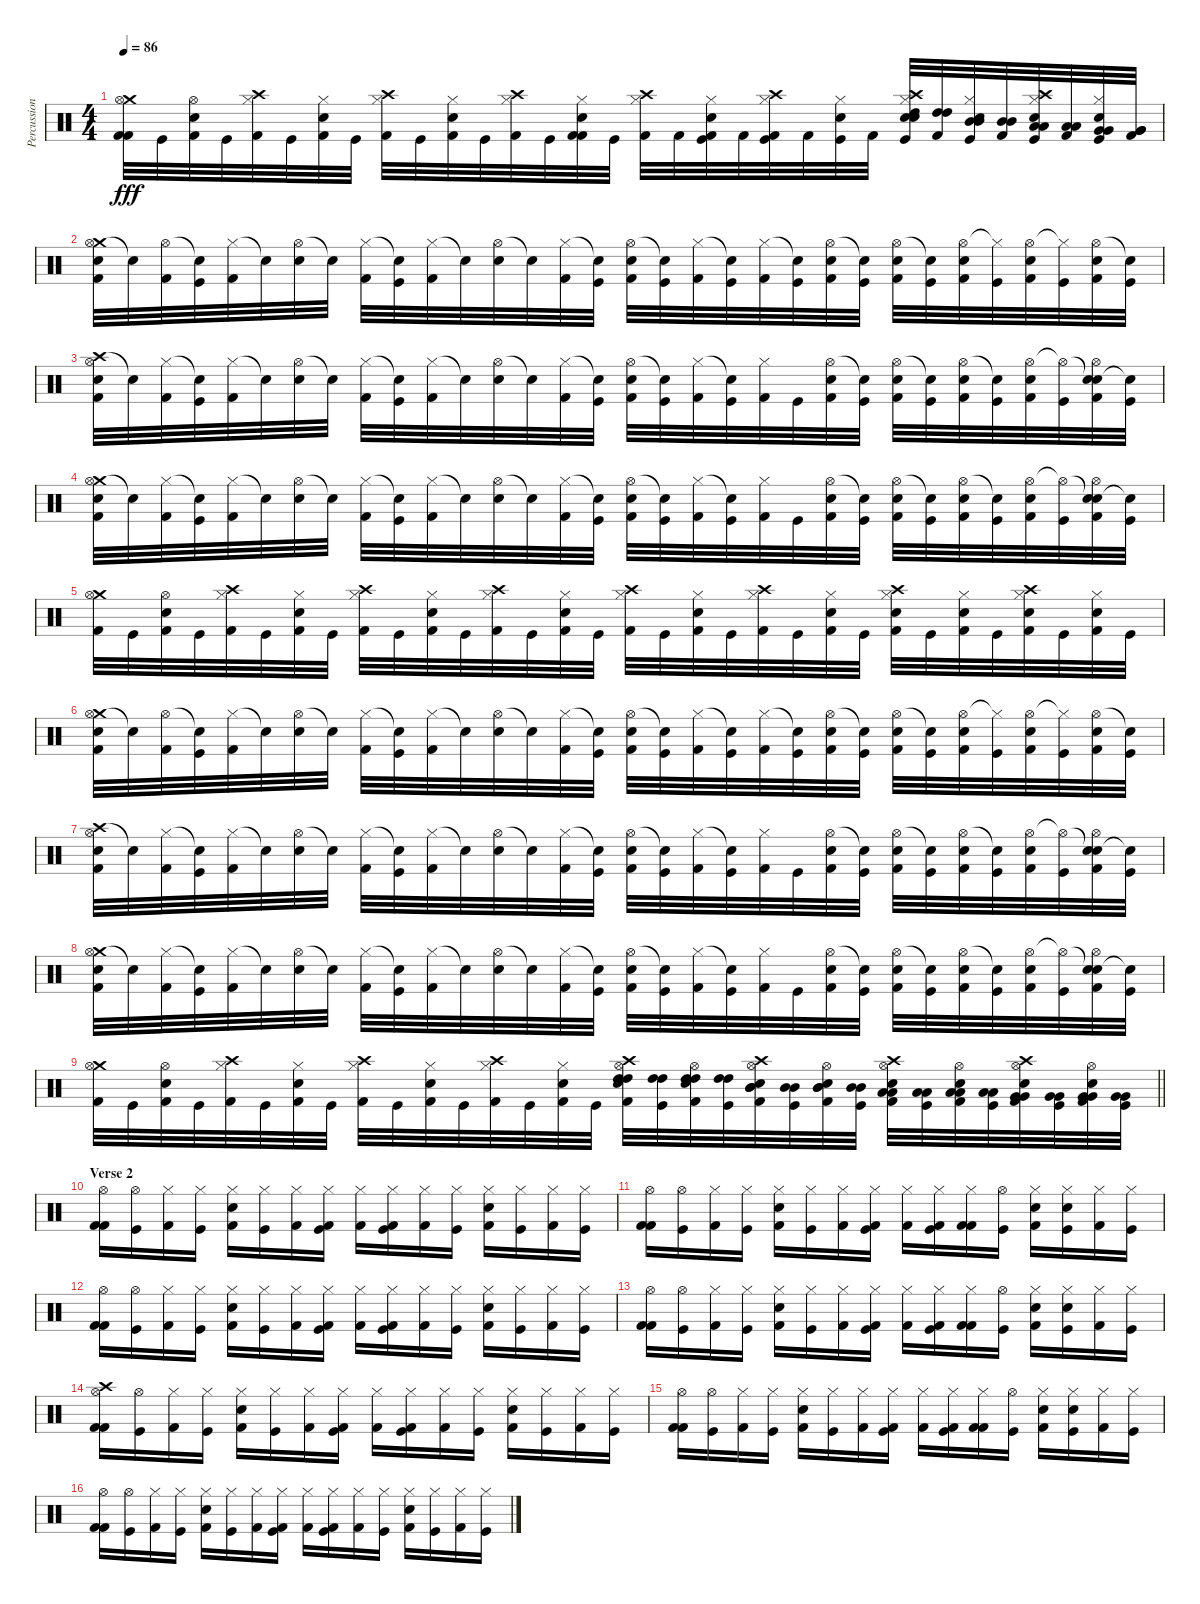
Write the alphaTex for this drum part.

\track ("Percussion" "Percussion") {instrument percussion}
\staff {score}
\articulation defaults
\ts (4 4)
\tempo 86
\clef neutral
\ks c
("Crash medium (hit)" "Hi-Hat (open)" "Kick (hit) 2" "Kick (hit) 2").32{dy fff} "Kick (hit)".32 ("Hi-Hat (open)" "Electric Snare (hit)" "Kick (hit) 2").32 "Kick (hit)".32 ("Crash high (hit)" "Hi-Hat (closed)" "Kick (hit) 2").32 "Kick (hit)".32 ("Hi-Hat (closed)" "Electric Snare (hit)" "Kick (hit) 2").32 "Kick (hit)".32 ("Crash high (hit)" "Hi-Hat (closed)" "Kick (hit) 2").32 "Kick (hit)".32 ("Hi-Hat (closed)" "Electric Snare (hit)" "Kick (hit) 2").32 "Kick (hit)".32 ("Crash high (hit)" "Hi-Hat (closed)" "Kick (hit) 2").32 "Kick (hit)".32 ("Hi-Hat (closed)" "Electric Snare (hit)" "Kick (hit) 2" "Kick (hit) 2").32 "Kick (hit)".32 ("Crash high (hit)" "Hi-Hat (closed)" "Kick (hit) 2").32 "Kick (hit) 2".32 ("Hi-Hat (closed)" "Electric Snare (hit)" "Kick (hit) 2" "Kick (hit)").32 "Kick (hit) 2".32 ("Crash high (hit)" "Hi-Hat (closed)" "Kick (hit) 2" "Kick (hit)").32 "Kick (hit) 2".32 ("Hi-Hat (closed)" "Electric Snare (hit)" "Kick (hit)").32 "Kick (hit) 2".32 ("Crash high (hit)" "Hi-Hat (closed)" "Snare (hit)" "High Tom (hit)" "Electric Snare (hit)" "Kick (hit)").32 ("High Tom (hit)" "High Tom (hit)" "Kick (hit) 2").32 ("Hi-Hat (closed)" "Mid Tom (hit)" "Mid Tom (hit)" "Electric Snare (hit)" "Kick (hit)").32 ("Mid Tom (hit)" "Mid Tom (hit)" "Kick (hit) 2").32 ("Crash high (hit)" "Hi-Hat (closed)" "Low Tom (hit)" "Low Tom (hit)" "Electric Snare (hit)" "Kick (hit)").32 ("Low Tom (hit)" "Low Tom (hit)" "Kick (hit) 2").32 ("Hi-Hat (closed)" "Very Low Tom (hit)" "Very Low Tom (hit)" "Electric Snare (hit)" "Kick (hit)").32 ("Very Low Tom (hit)" "Very Low Tom (hit)" "Kick (hit) 2").32 |
("Crash medium (hit)" "Hi-Hat (open)" "Electric Snare (hit)" "Kick (hit) 2").32 "Snare (hit)"{t}.32 ("Hi-Hat (open)" "Kick (hit) 2").32 ("Snare (hit)"{t} "Kick (hit)").32 ("Hi-Hat (closed)" "Kick (hit) 2").32 "Snare (hit)"{t}.32 ("Hi-Hat (open)" "Electric Snare (hit)").32 "Snare (hit)"{t}.32 ("Hi-Hat (closed)" "Kick (hit) 2").32 ("Snare (hit)"{t} "Kick (hit)").32 ("Hi-Hat (closed)" "Kick (hit) 2").32 "Snare (hit)"{t}.32 ("Hi-Hat (open)" "Electric Snare (hit)").32 "Snare (hit)"{t}.32 ("Hi-Hat (closed)" "Kick (hit) 2").32 ("Snare (hit)"{t} "Kick (hit)").32 ("Hi-Hat (open)" "Electric Snare (hit)" "Kick (hit) 2").32 ("Snare (hit)"{t} "Kick (hit)").32 ("Hi-Hat (closed)" "Kick (hit) 2").32 ("Snare (hit)"{t} "Kick (hit)").32 ("Hi-Hat (closed)" "Kick (hit) 2").32 ("Snare (hit)"{t} "Kick (hit)").32 ("Hi-Hat (open)" "Electric Snare (hit)" "Kick (hit) 2").32 ("Snare (hit)"{t} "Kick (hit)").32 ("Hi-Hat (open)" "Electric Snare (hit)" "Kick (hit) 2").32 ("Snare (hit)"{t} "Kick (hit)").32 ("Hi-Hat (open)" "Electric Snare (hit)" "Kick (hit) 2").32 ("Hi-Hat (closed)"{t} "Kick (hit)").32 ("Hi-Hat (open)" "Electric Snare (hit)" "Kick (hit) 2").32 ("Hi-Hat (closed)"{t} "Kick (hit)").32 ("Hi-Hat (open)" "Electric Snare (hit)" "Kick (hit) 2").32 ("Snare (hit)"{t} "Kick (hit)").32 |
("Crash high (hit)" "Hi-Hat (open)" "Electric Snare (hit)" "Kick (hit) 2").32 "Snare (hit)"{t}.32 ("Hi-Hat (closed)" "Kick (hit) 2").32 ("Snare (hit)"{t} "Kick (hit)").32 ("Hi-Hat (closed)" "Kick (hit) 2").32 "Snare (hit)"{t}.32 ("Hi-Hat (open)" "Electric Snare (hit)").32 "Snare (hit)"{t}.32 ("Hi-Hat (closed)" "Kick (hit) 2").32 ("Snare (hit)"{t} "Kick (hit)").32 ("Hi-Hat (closed)" "Kick (hit) 2").32 "Snare (hit)"{t}.32 ("Hi-Hat (open)" "Electric Snare (hit)").32 "Snare (hit)"{t}.32 ("Hi-Hat (closed)" "Kick (hit) 2").32 ("Snare (hit)"{t} "Kick (hit)").32 ("Hi-Hat (open)" "Electric Snare (hit)" "Kick (hit) 2").32 ("Snare (hit)"{t} "Kick (hit)").32 ("Hi-Hat (closed)" "Kick (hit) 2").32 ("Snare (hit)"{t} "Kick (hit)").32 ("Hi-Hat (closed)" "Kick (hit) 2").32 "Kick (hit)".32 ("Hi-Hat (open)" "Electric Snare (hit)" "Kick (hit) 2").32 ("Snare (hit)"{t} "Kick (hit)").32 ("Hi-Hat (open)" "Electric Snare (hit)" "Kick (hit) 2").32 ("Snare (hit)"{t} "Kick (hit)").32 ("Hi-Hat (open)" "Electric Snare (hit)" "Kick (hit) 2").32 ("Snare (hit)"{t} "Kick (hit)").32 ("Hi-Hat (open)" "Electric Snare (hit)" "Kick (hit) 2").32 ("Hi-Hat (open)"{t} "Kick (hit)").32 ("Snare (hit)"{t} "Hi-Hat (open)" "Electric Snare (hit)" "Kick (hit) 2").32 ("Snare (hit)"{t} "Kick (hit)").32 |
("Crash medium (hit)" "Hi-Hat (open)" "Electric Snare (hit)" "Kick (hit) 2").32 "Snare (hit)"{t}.32 ("Hi-Hat (closed)" "Kick (hit) 2").32 ("Snare (hit)"{t} "Kick (hit)").32 ("Hi-Hat (closed)" "Kick (hit) 2").32 "Snare (hit)"{t}.32 ("Hi-Hat (open)" "Electric Snare (hit)").32 "Snare (hit)"{t}.32 ("Hi-Hat (closed)" "Kick (hit) 2").32 ("Snare (hit)"{t} "Kick (hit)").32 ("Hi-Hat (closed)" "Kick (hit) 2").32 "Snare (hit)"{t}.32 ("Hi-Hat (open)" "Electric Snare (hit)").32 "Snare (hit)"{t}.32 ("Hi-Hat (closed)" "Kick (hit) 2").32 ("Snare (hit)"{t} "Kick (hit)").32 ("Hi-Hat (open)" "Electric Snare (hit)" "Kick (hit) 2").32 ("Snare (hit)"{t} "Kick (hit)").32 ("Hi-Hat (closed)" "Kick (hit) 2").32 ("Snare (hit)"{t} "Kick (hit)").32 ("Hi-Hat (closed)" "Kick (hit) 2").32 "Kick (hit)".32 ("Hi-Hat (open)" "Electric Snare (hit)" "Kick (hit) 2").32 ("Snare (hit)"{t} "Kick (hit)").32 ("Hi-Hat (open)" "Electric Snare (hit)" "Kick (hit) 2").32 ("Snare (hit)"{t} "Kick (hit)").32 ("Hi-Hat (open)" "Electric Snare (hit)" "Kick (hit) 2").32 ("Snare (hit)"{t} "Kick (hit)").32 ("Hi-Hat (open)" "Electric Snare (hit)" "Kick (hit) 2").32 ("Hi-Hat (open)"{t} "Kick (hit)").32 ("Snare (hit)"{t} "Hi-Hat (open)" "Electric Snare (hit)" "Kick (hit) 2").32 ("Snare (hit)"{t} "Kick (hit)").32 |
("Crash medium (hit)" "Hi-Hat (open)" "Kick (hit) 2").32 "Kick (hit)".32 ("Hi-Hat (open)" "Electric Snare (hit)" "Kick (hit) 2").32 "Kick (hit)".32 ("Crash high (hit)" "Hi-Hat (closed)" "Kick (hit) 2").32 "Kick (hit)".32 ("Hi-Hat (closed)" "Electric Snare (hit)" "Kick (hit) 2").32 "Kick (hit)".32 ("Crash high (hit)" "Hi-Hat (closed)" "Kick (hit) 2").32 "Kick (hit)".32 ("Hi-Hat (closed)" "Electric Snare (hit)" "Kick (hit) 2").32 "Kick (hit)".32 ("Crash high (hit)" "Hi-Hat (closed)" "Kick (hit) 2").32 "Kick (hit)".32 ("Hi-Hat (closed)" "Electric Snare (hit)" "Kick (hit) 2").32 "Kick (hit)".32 ("Crash high (hit)" "Hi-Hat (closed)" "Kick (hit) 2").32 "Kick (hit)".32 ("Hi-Hat (closed)" "Electric Snare (hit)" "Kick (hit) 2").32 "Kick (hit)".32 ("Crash high (hit)" "Hi-Hat (closed)" "Kick (hit) 2").32 "Kick (hit)".32 ("Hi-Hat (closed)" "Electric Snare (hit)" "Kick (hit) 2").32 "Kick (hit)".32 ("Crash high (hit)" "Hi-Hat (closed)" "Electric Snare (hit)" "Kick (hit) 2").32 "Kick (hit)".32 ("Hi-Hat (closed)" "Electric Snare (hit)" "Kick (hit) 2").32 "Kick (hit)".32 ("Crash high (hit)" "Hi-Hat (closed)" "Electric Snare (hit)" "Kick (hit) 2").32 "Kick (hit)".32 ("Hi-Hat (closed)" "Electric Snare (hit)" "Kick (hit) 2").32 "Kick (hit)".32 |
("Crash medium (hit)" "Hi-Hat (open)" "Electric Snare (hit)" "Kick (hit) 2").32 "Snare (hit)"{t}.32 ("Hi-Hat (open)" "Kick (hit) 2").32 ("Snare (hit)"{t} "Kick (hit)").32 ("Hi-Hat (closed)" "Kick (hit) 2").32 "Snare (hit)"{t}.32 ("Hi-Hat (open)" "Electric Snare (hit)").32 "Snare (hit)"{t}.32 ("Hi-Hat (closed)" "Kick (hit) 2").32 ("Snare (hit)"{t} "Kick (hit)").32 ("Hi-Hat (closed)" "Kick (hit) 2").32 "Snare (hit)"{t}.32 ("Hi-Hat (open)" "Electric Snare (hit)").32 "Snare (hit)"{t}.32 ("Hi-Hat (closed)" "Kick (hit) 2").32 ("Snare (hit)"{t} "Kick (hit)").32 ("Hi-Hat (open)" "Electric Snare (hit)" "Kick (hit) 2").32 ("Snare (hit)"{t} "Kick (hit)").32 ("Hi-Hat (closed)" "Kick (hit) 2").32 ("Snare (hit)"{t} "Kick (hit)").32 ("Hi-Hat (closed)" "Kick (hit) 2").32 ("Snare (hit)"{t} "Kick (hit)").32 ("Hi-Hat (open)" "Electric Snare (hit)" "Kick (hit) 2").32 ("Snare (hit)"{t} "Kick (hit)").32 ("Hi-Hat (open)" "Electric Snare (hit)" "Kick (hit) 2").32 ("Snare (hit)"{t} "Kick (hit)").32 ("Hi-Hat (open)" "Electric Snare (hit)" "Kick (hit) 2").32 ("Hi-Hat (closed)"{t} "Kick (hit)").32 ("Hi-Hat (open)" "Electric Snare (hit)" "Kick (hit) 2").32 ("Hi-Hat (closed)"{t} "Kick (hit)").32 ("Hi-Hat (open)" "Electric Snare (hit)" "Kick (hit) 2").32 ("Snare (hit)"{t} "Kick (hit)").32 |
("Crash high (hit)" "Hi-Hat (open)" "Electric Snare (hit)" "Kick (hit) 2").32 "Snare (hit)"{t}.32 ("Hi-Hat (closed)" "Kick (hit) 2").32 ("Snare (hit)"{t} "Kick (hit)").32 ("Hi-Hat (closed)" "Kick (hit) 2").32 "Snare (hit)"{t}.32 ("Hi-Hat (open)" "Electric Snare (hit)").32 "Snare (hit)"{t}.32 ("Hi-Hat (closed)" "Kick (hit) 2").32 ("Snare (hit)"{t} "Kick (hit)").32 ("Hi-Hat (closed)" "Kick (hit) 2").32 "Snare (hit)"{t}.32 ("Hi-Hat (open)" "Electric Snare (hit)").32 "Snare (hit)"{t}.32 ("Hi-Hat (closed)" "Kick (hit) 2").32 ("Snare (hit)"{t} "Kick (hit)").32 ("Hi-Hat (open)" "Electric Snare (hit)" "Kick (hit) 2").32 ("Snare (hit)"{t} "Kick (hit)").32 ("Hi-Hat (closed)" "Kick (hit) 2").32 ("Snare (hit)"{t} "Kick (hit)").32 ("Hi-Hat (closed)" "Kick (hit) 2").32 "Kick (hit)".32 ("Hi-Hat (open)" "Electric Snare (hit)" "Kick (hit) 2").32 ("Snare (hit)"{t} "Kick (hit)").32 ("Hi-Hat (open)" "Electric Snare (hit)" "Kick (hit) 2").32 ("Snare (hit)"{t} "Kick (hit)").32 ("Hi-Hat (open)" "Electric Snare (hit)" "Kick (hit) 2").32 ("Snare (hit)"{t} "Kick (hit)").32 ("Hi-Hat (open)" "Electric Snare (hit)" "Kick (hit) 2").32 ("Hi-Hat (open)"{t} "Kick (hit)").32 ("Snare (hit)"{t} "Hi-Hat (open)" "Electric Snare (hit)" "Kick (hit) 2").32 ("Snare (hit)"{t} "Kick (hit)").32 |
("Crash medium (hit)" "Hi-Hat (open)" "Electric Snare (hit)" "Kick (hit) 2").32 "Snare (hit)"{t}.32 ("Hi-Hat (closed)" "Kick (hit) 2").32 ("Snare (hit)"{t} "Kick (hit)").32 ("Hi-Hat (closed)" "Kick (hit) 2").32 "Snare (hit)"{t}.32 ("Hi-Hat (open)" "Electric Snare (hit)").32 "Snare (hit)"{t}.32 ("Hi-Hat (closed)" "Kick (hit) 2").32 ("Snare (hit)"{t} "Kick (hit)").32 ("Hi-Hat (closed)" "Kick (hit) 2").32 "Snare (hit)"{t}.32 ("Hi-Hat (open)" "Electric Snare (hit)").32 "Snare (hit)"{t}.32 ("Hi-Hat (closed)" "Kick (hit) 2").32 ("Snare (hit)"{t} "Kick (hit)").32 ("Hi-Hat (open)" "Electric Snare (hit)" "Kick (hit) 2").32 ("Snare (hit)"{t} "Kick (hit)").32 ("Hi-Hat (closed)" "Kick (hit) 2").32 ("Snare (hit)"{t} "Kick (hit)").32 ("Hi-Hat (closed)" "Kick (hit) 2").32 "Kick (hit)".32 ("Hi-Hat (open)" "Electric Snare (hit)" "Kick (hit) 2").32 ("Snare (hit)"{t} "Kick (hit)").32 ("Hi-Hat (open)" "Electric Snare (hit)" "Kick (hit) 2").32 ("Snare (hit)"{t} "Kick (hit)").32 ("Hi-Hat (open)" "Electric Snare (hit)" "Kick (hit) 2").32 ("Snare (hit)"{t} "Kick (hit)").32 ("Hi-Hat (open)" "Electric Snare (hit)" "Kick (hit) 2").32 ("Hi-Hat (open)"{t} "Kick (hit)").32 ("Snare (hit)"{t} "Hi-Hat (open)" "Electric Snare (hit)" "Kick (hit) 2").32 ("Snare (hit)"{t} "Kick (hit)").32 |
\barLineRight lightlight
("Crash medium (hit)" "Hi-Hat (open)" "Kick (hit) 2").32 "Kick (hit)".32 ("Hi-Hat (open)" "Electric Snare (hit)" "Kick (hit) 2").32 "Kick (hit)".32 ("Crash high (hit)" "Hi-Hat (closed)" "Kick (hit) 2").32 "Kick (hit)".32 ("Hi-Hat (closed)" "Electric Snare (hit)" "Kick (hit) 2").32 "Kick (hit)".32 ("Crash high (hit)" "Hi-Hat (closed)" "Kick (hit) 2").32 "Kick (hit)".32 ("Hi-Hat (closed)" "Electric Snare (hit)" "Kick (hit) 2").32 "Kick (hit)".32 ("Crash high (hit)" "Hi-Hat (closed)" "Kick (hit) 2").32 "Kick (hit)".32 ("Hi-Hat (closed)" "Electric Snare (hit)" "Kick (hit) 2").32 "Kick (hit)".32 ("Crash high (hit)" "Hi-Hat (open)" "High Tom (hit)" "High Tom (hit)" "Electric Snare (hit)" "Kick (hit) 2").32 ("High Tom (hit)" "High Tom (hit)" "Kick (hit)").32 ("Hi-Hat (open)" "High Tom (hit)" "High Tom (hit)" "Electric Snare (hit)" "Kick (hit) 2").32 ("High Tom (hit)" "High Tom (hit)" "Kick (hit)").32 ("Crash high (hit)" "Hi-Hat (open)" "Mid Tom (hit)" "Mid Tom (hit)" "Electric Snare (hit)" "Kick (hit) 2").32 ("Mid Tom (hit)" "Mid Tom (hit)" "Kick (hit)").32 ("Hi-Hat (open)" "Mid Tom (hit)" "Mid Tom (hit)" "Electric Snare (hit)" "Kick (hit) 2").32 ("Mid Tom (hit)" "Mid Tom (hit)" "Kick (hit)").32 ("Crash high (hit)" "Hi-Hat (open)" "Low Tom (hit)" "Low Tom (hit)" "Electric Snare (hit)" "Kick (hit) 2").32 ("Low Tom (hit)" "Low Tom (hit)" "Kick (hit)").32 ("Hi-Hat (open)" "Low Tom (hit)" "Low Tom (hit)" "Electric Snare (hit)" "Kick (hit) 2").32 ("Low Tom (hit)" "Low Tom (hit)" "Kick (hit)").32 ("Crash high (hit)" "Hi-Hat (open)" "Very Low Tom (hit)" "Very Low Tom (hit)" "Electric Snare (hit)" "Kick (hit) 2").32 ("Very Low Tom (hit)" "Very Low Tom (hit)" "Kick (hit)").32 ("Hi-Hat (open)" "Very Low Tom (hit)" "Very Low Tom (hit)" "Electric Snare (hit)" "Kick (hit) 2").32 ("Very Low Tom (hit)" "Very Low Tom (hit)" "Kick (hit)").32 |
\section ("" "Verse 2")
("Hi-Hat (open)" "Kick (hit) 2" "Kick (hit) 2").16 ("Hi-Hat (open)" "Kick (hit)").16 ("Hi-Hat (closed)" "Kick (hit) 2").16 ("Hi-Hat (closed)" "Kick (hit)").16 ("Hi-Hat (closed)" "Electric Snare (hit)" "Kick (hit) 2").16 ("Hi-Hat (closed)" "Kick (hit)").16 ("Hi-Hat (closed)" "Kick (hit) 2").16 ("Hi-Hat (closed)" "Kick (hit) 2" "Kick (hit)").16 ("Hi-Hat (closed)" "Kick (hit) 2").16 ("Hi-Hat (closed)" "Kick (hit) 2" "Kick (hit)").16 ("Hi-Hat (closed)" "Kick (hit) 2").16 ("Hi-Hat (closed)" "Kick (hit)").16 ("Hi-Hat (closed)" "Electric Snare (hit)" "Kick (hit) 2").16 ("Hi-Hat (closed)" "Kick (hit)").16 ("Hi-Hat (closed)" "Kick (hit) 2").16 ("Hi-Hat (closed)" "Kick (hit)").16 |
("Hi-Hat (open)" "Kick (hit) 2" "Kick (hit) 2").16 ("Hi-Hat (open)" "Kick (hit)").16 ("Hi-Hat (closed)" "Kick (hit) 2").16 ("Hi-Hat (closed)" "Kick (hit)").16 ("Hi-Hat (closed)" "Electric Snare (hit)" "Kick (hit) 2").16 ("Hi-Hat (closed)" "Kick (hit)").16 ("Hi-Hat (closed)" "Kick (hit) 2").16 ("Hi-Hat (closed)" "Kick (hit) 2" "Kick (hit)").16 ("Hi-Hat (closed)" "Kick (hit) 2").16 ("Hi-Hat (closed)" "Kick (hit) 2" "Kick (hit)").16 ("Hi-Hat (closed)" "Kick (hit) 2" "Kick (hit) 2").16 ("Hi-Hat (open)" "Kick (hit)").16 ("Hi-Hat (closed)" "Electric Snare (hit)" "Kick (hit) 2").16 ("Hi-Hat (closed)" "Electric Snare (hit)" "Kick (hit)").16 ("Hi-Hat (closed)" "Kick (hit) 2").16 ("Hi-Hat (closed)" "Kick (hit)").16 |
("Hi-Hat (open)" "Kick (hit) 2" "Kick (hit) 2").16 ("Hi-Hat (open)" "Kick (hit)").16 ("Hi-Hat (closed)" "Kick (hit) 2").16 ("Hi-Hat (closed)" "Kick (hit)").16 ("Hi-Hat (closed)" "Electric Snare (hit)" "Kick (hit) 2").16 ("Hi-Hat (closed)" "Kick (hit)").16 ("Hi-Hat (closed)" "Kick (hit) 2").16 ("Hi-Hat (closed)" "Kick (hit) 2" "Kick (hit)").16 ("Hi-Hat (closed)" "Kick (hit) 2").16 ("Hi-Hat (closed)" "Kick (hit) 2" "Kick (hit)").16 ("Hi-Hat (closed)" "Kick (hit) 2").16 ("Hi-Hat (closed)" "Kick (hit)").16 ("Hi-Hat (closed)" "Electric Snare (hit)" "Kick (hit) 2").16 ("Hi-Hat (closed)" "Kick (hit)").16 ("Hi-Hat (closed)" "Kick (hit) 2").16 ("Hi-Hat (closed)" "Kick (hit)").16 |
("Hi-Hat (open)" "Kick (hit) 2" "Kick (hit) 2").16 ("Hi-Hat (open)" "Kick (hit)").16 ("Hi-Hat (closed)" "Kick (hit) 2").16 ("Hi-Hat (closed)" "Kick (hit)").16 ("Hi-Hat (closed)" "Electric Snare (hit)" "Kick (hit) 2").16 ("Hi-Hat (closed)" "Kick (hit)").16 ("Hi-Hat (closed)" "Kick (hit) 2").16 ("Hi-Hat (closed)" "Kick (hit) 2" "Kick (hit)").16 ("Hi-Hat (closed)" "Kick (hit) 2").16 ("Hi-Hat (closed)" "Kick (hit) 2" "Kick (hit)").16 ("Hi-Hat (closed)" "Kick (hit) 2" "Kick (hit) 2").16 ("Hi-Hat (open)" "Kick (hit)").16 ("Hi-Hat (closed)" "Electric Snare (hit)" "Kick (hit) 2").16 ("Hi-Hat (closed)" "Electric Snare (hit)" "Kick (hit)").16 ("Hi-Hat (closed)" "Kick (hit) 2").16 ("Hi-Hat (closed)" "Kick (hit)").16 |
("Hi-Hat (open)" "Crash high (hit)" "Kick (hit) 2" "Kick (hit) 2").16 ("Hi-Hat (open)" "Kick (hit)").16 ("Hi-Hat (closed)" "Kick (hit) 2").16 ("Hi-Hat (closed)" "Kick (hit)").16 ("Hi-Hat (closed)" "Electric Snare (hit)" "Kick (hit) 2").16 ("Hi-Hat (closed)" "Kick (hit)").16 ("Hi-Hat (closed)" "Kick (hit) 2").16 ("Hi-Hat (closed)" "Kick (hit) 2" "Kick (hit)").16 ("Hi-Hat (closed)" "Kick (hit) 2").16 ("Hi-Hat (closed)" "Kick (hit) 2" "Kick (hit)").16 ("Hi-Hat (closed)" "Kick (hit) 2").16 ("Hi-Hat (closed)" "Kick (hit)").16 ("Hi-Hat (closed)" "Electric Snare (hit)" "Kick (hit) 2").16 ("Hi-Hat (closed)" "Kick (hit)").16 ("Hi-Hat (closed)" "Kick (hit) 2").16 ("Hi-Hat (closed)" "Kick (hit)").16 |
("Hi-Hat (open)" "Kick (hit) 2" "Kick (hit) 2").16 ("Hi-Hat (open)" "Kick (hit)").16 ("Hi-Hat (closed)" "Kick (hit) 2").16 ("Hi-Hat (closed)" "Kick (hit)").16 ("Hi-Hat (closed)" "Electric Snare (hit)" "Kick (hit) 2").16 ("Hi-Hat (closed)" "Kick (hit)").16 ("Hi-Hat (closed)" "Kick (hit) 2").16 ("Hi-Hat (closed)" "Kick (hit) 2" "Kick (hit)").16 ("Hi-Hat (closed)" "Kick (hit) 2").16 ("Hi-Hat (closed)" "Kick (hit) 2" "Kick (hit)").16 ("Hi-Hat (closed)" "Kick (hit) 2" "Kick (hit) 2").16 ("Hi-Hat (open)" "Kick (hit)").16 ("Hi-Hat (closed)" "Electric Snare (hit)" "Kick (hit) 2").16 ("Hi-Hat (closed)" "Electric Snare (hit)" "Kick (hit)").16 ("Hi-Hat (closed)" "Kick (hit) 2").16 ("Hi-Hat (closed)" "Kick (hit)").16 |
("Hi-Hat (open)" "Kick (hit) 2" "Kick (hit) 2").16 ("Hi-Hat (open)" "Kick (hit)").16 ("Hi-Hat (closed)" "Kick (hit) 2").16 ("Hi-Hat (closed)" "Kick (hit)").16 ("Hi-Hat (closed)" "Electric Snare (hit)" "Kick (hit) 2").16 ("Hi-Hat (closed)" "Kick (hit)").16 ("Hi-Hat (closed)" "Kick (hit) 2").16 ("Hi-Hat (closed)" "Kick (hit) 2" "Kick (hit)").16 ("Hi-Hat (closed)" "Kick (hit) 2").16 ("Hi-Hat (closed)" "Kick (hit) 2" "Kick (hit)").16 ("Hi-Hat (closed)" "Kick (hit) 2").16 ("Hi-Hat (closed)" "Kick (hit)").16 ("Hi-Hat (closed)" "Electric Snare (hit)" "Kick (hit) 2").16 ("Hi-Hat (closed)" "Kick (hit)").16 ("Hi-Hat (closed)" "Kick (hit) 2").16 ("Hi-Hat (closed)" "Kick (hit)").16
